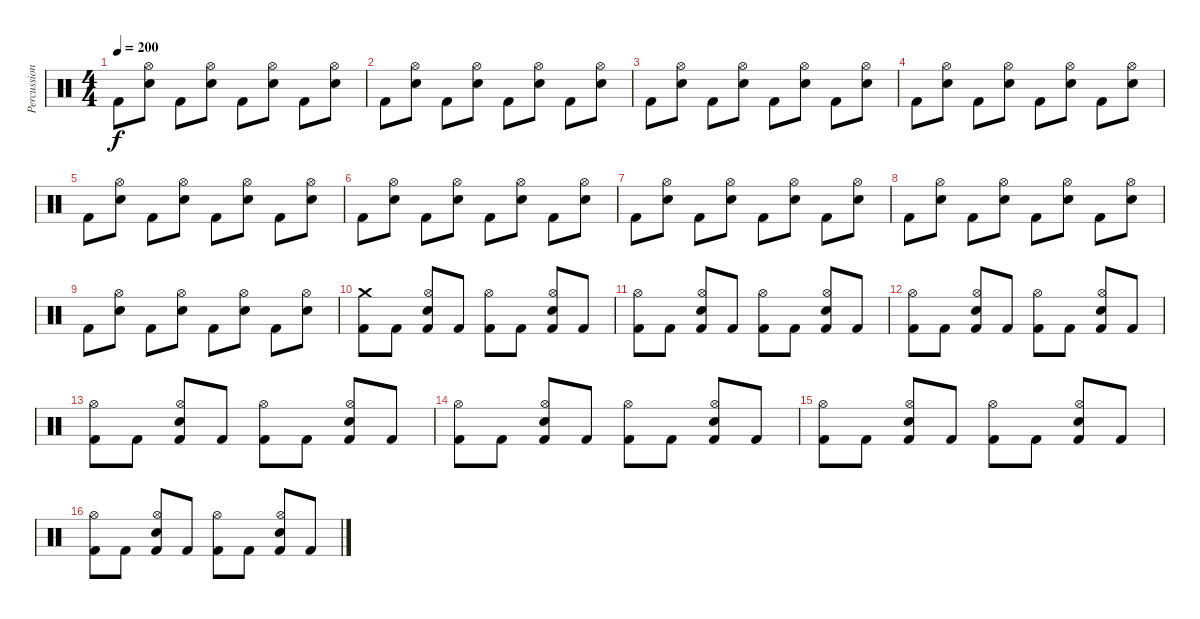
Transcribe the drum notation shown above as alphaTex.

\track ("Percussion" "Percussion") {instrument percussion}
\staff {score}
\articulation defaults
\ts (4 4)
\tempo 200
\clef neutral
\ks c "Kick (hit) 2".8{dy f}
("Hi-Hat (open)" "Electric Snare (hit)").8 "Kick (hit) 2".8 ("Hi-Hat (open)" "Electric Snare (hit)").8 "Kick (hit) 2".8 ("Hi-Hat (open)" "Electric Snare (hit)").8 "Kick (hit) 2".8 ("Hi-Hat (open)" "Electric Snare (hit)").8 |
"Kick (hit) 2".8 ("Hi-Hat (open)" "Electric Snare (hit)").8 "Kick (hit) 2".8 ("Hi-Hat (open)" "Electric Snare (hit)").8 "Kick (hit) 2".8 ("Hi-Hat (open)" "Electric Snare (hit)").8 "Kick (hit) 2".8 ("Hi-Hat (open)" "Electric Snare (hit)").8 |
"Kick (hit) 2".8 ("Hi-Hat (open)" "Electric Snare (hit)").8 "Kick (hit) 2".8 ("Hi-Hat (open)" "Electric Snare (hit)").8 "Kick (hit) 2".8 ("Hi-Hat (open)" "Electric Snare (hit)").8 "Kick (hit) 2".8 ("Hi-Hat (open)" "Electric Snare (hit)").8 |
"Kick (hit) 2".8 ("Hi-Hat (open)" "Electric Snare (hit)").8 "Kick (hit) 2".8 ("Hi-Hat (open)" "Electric Snare (hit)").8 "Kick (hit) 2".8 ("Hi-Hat (open)" "Electric Snare (hit)").8 "Kick (hit) 2".8 ("Hi-Hat (open)" "Electric Snare (hit)").8 |
"Kick (hit) 2".8 ("Hi-Hat (open)" "Electric Snare (hit)").8 "Kick (hit) 2".8 ("Hi-Hat (open)" "Electric Snare (hit)").8 "Kick (hit) 2".8 ("Hi-Hat (open)" "Electric Snare (hit)").8 "Kick (hit) 2".8 ("Hi-Hat (open)" "Electric Snare (hit)").8 |
"Kick (hit) 2".8 ("Hi-Hat (open)" "Electric Snare (hit)").8 "Kick (hit) 2".8 ("Hi-Hat (open)" "Electric Snare (hit)").8 "Kick (hit) 2".8 ("Hi-Hat (open)" "Electric Snare (hit)").8 "Kick (hit) 2".8 ("Hi-Hat (open)" "Electric Snare (hit)").8 |
"Kick (hit) 2".8 ("Hi-Hat (open)" "Electric Snare (hit)").8 "Kick (hit) 2".8 ("Hi-Hat (open)" "Electric Snare (hit)").8 "Kick (hit) 2".8 ("Hi-Hat (open)" "Electric Snare (hit)").8 "Kick (hit) 2".8 ("Hi-Hat (open)" "Electric Snare (hit)").8 |
"Kick (hit) 2".8 ("Hi-Hat (open)" "Electric Snare (hit)").8 "Kick (hit) 2".8 ("Hi-Hat (open)" "Electric Snare (hit)").8 "Kick (hit) 2".8 ("Hi-Hat (open)" "Electric Snare (hit)").8 "Kick (hit) 2".8 ("Hi-Hat (open)" "Electric Snare (hit)").8 |
"Kick (hit) 2".8 ("Hi-Hat (open)" "Electric Snare (hit)").8 "Kick (hit) 2".8 ("Hi-Hat (open)" "Electric Snare (hit)").8 "Kick (hit) 2".8 ("Hi-Hat (open)" "Electric Snare (hit)").8 "Kick (hit) 2".8 ("Hi-Hat (open)" "Electric Snare (hit)").8 |
("Crash medium (hit)" "Kick (hit) 2").8 "Kick (hit) 2".8 ("Hi-Hat (open)" "Electric Snare (hit)" "Kick (hit) 2").8 "Kick (hit) 2".8 ("Hi-Hat (open)" "Kick (hit) 2").8 "Kick (hit) 2".8 ("Hi-Hat (open)" "Electric Snare (hit)" "Kick (hit) 2").8 "Kick (hit) 2".8 |
("Hi-Hat (open)" "Kick (hit) 2").8 "Kick (hit) 2".8 ("Hi-Hat (open)" "Electric Snare (hit)" "Kick (hit) 2").8 "Kick (hit) 2".8 ("Hi-Hat (open)" "Kick (hit) 2").8 "Kick (hit) 2".8 ("Hi-Hat (open)" "Electric Snare (hit)" "Kick (hit) 2").8 "Kick (hit) 2".8 |
("Hi-Hat (open)" "Kick (hit) 2").8 "Kick (hit) 2".8 ("Hi-Hat (open)" "Electric Snare (hit)" "Kick (hit) 2").8 "Kick (hit) 2".8 ("Hi-Hat (open)" "Kick (hit) 2").8 "Kick (hit) 2".8 ("Hi-Hat (open)" "Electric Snare (hit)" "Kick (hit) 2").8 "Kick (hit) 2".8 |
("Hi-Hat (open)" "Kick (hit) 2").8 "Kick (hit) 2".8 ("Hi-Hat (open)" "Electric Snare (hit)" "Kick (hit) 2").8 "Kick (hit) 2".8 ("Hi-Hat (open)" "Kick (hit) 2").8 "Kick (hit) 2".8 ("Hi-Hat (open)" "Electric Snare (hit)" "Kick (hit) 2").8 "Kick (hit) 2".8 |
("Hi-Hat (open)" "Kick (hit) 2").8 "Kick (hit) 2".8 ("Hi-Hat (open)" "Electric Snare (hit)" "Kick (hit) 2").8 "Kick (hit) 2".8 ("Hi-Hat (open)" "Kick (hit) 2").8 "Kick (hit) 2".8 ("Hi-Hat (open)" "Electric Snare (hit)" "Kick (hit) 2").8 "Kick (hit) 2".8 |
("Hi-Hat (open)" "Kick (hit) 2").8 "Kick (hit) 2".8 ("Hi-Hat (open)" "Electric Snare (hit)" "Kick (hit) 2").8 "Kick (hit) 2".8 ("Hi-Hat (open)" "Kick (hit) 2").8 "Kick (hit) 2".8 ("Hi-Hat (open)" "Electric Snare (hit)" "Kick (hit) 2").8 "Kick (hit) 2".8 |
("Hi-Hat (open)" "Kick (hit) 2").8 "Kick (hit) 2".8 ("Hi-Hat (open)" "Electric Snare (hit)" "Kick (hit) 2").8 "Kick (hit) 2".8 ("Hi-Hat (open)" "Kick (hit) 2").8 "Kick (hit) 2".8 ("Hi-Hat (open)" "Electric Snare (hit)" "Kick (hit) 2").8 "Kick (hit) 2".8
